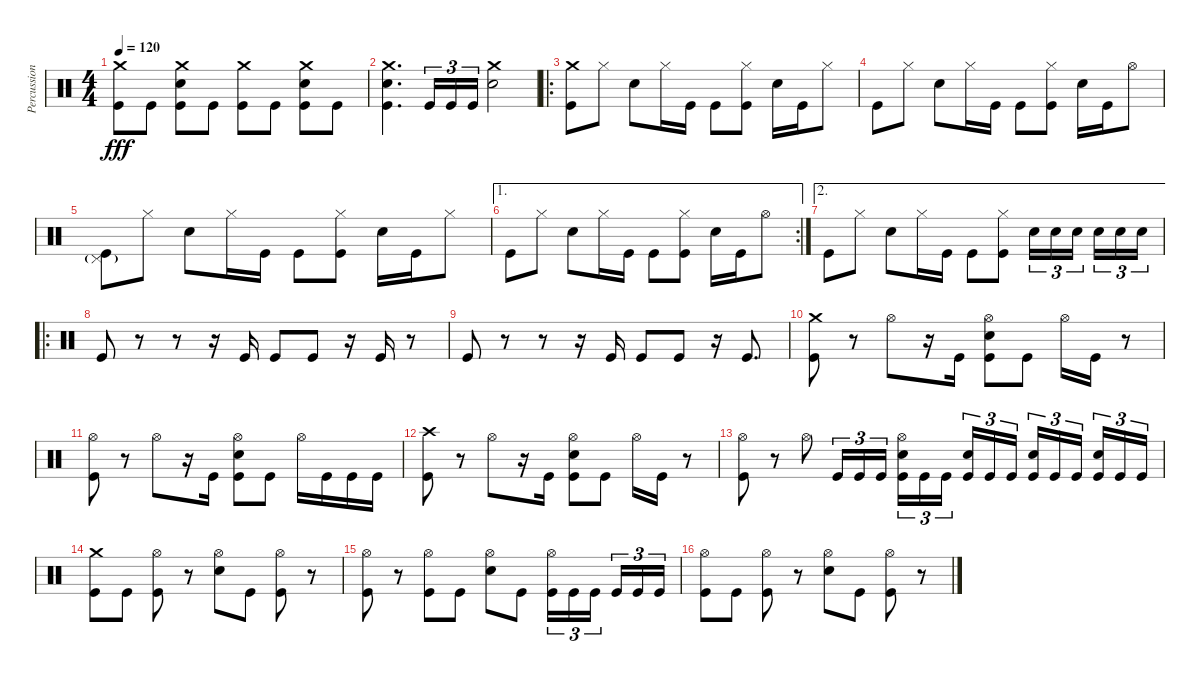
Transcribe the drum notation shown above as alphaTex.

\track ("Percussion" "Percussion") {instrument percussion}
\staff {score}
\articulation defaults
\ts (4 4)
\tempo 120
\clef neutral
\ks c
("Crash medium (hit)" "Kick (hit)").8{dy fff} "Kick (hit)".8 ("Crash medium (hit)" "Electric Snare (hit)" "Kick (hit)").8 "Kick (hit)".8 ("Crash medium (hit)" "Kick (hit)").8 "Kick (hit)".8 ("Crash medium (hit)" "Electric Snare (hit)" "Kick (hit)").8 "Kick (hit)".8 |
("Crash medium (hit)" "Electric Snare (hit)" "Kick (hit)").4{d} "Kick (hit)".16{tu (3 2)} "Kick (hit)".16{tu (3 2)} "Kick (hit)".16{tu (3 2)} ("Crash medium (hit)" "Electric Snare (hit)").2 |
\ro
("Crash medium (hit)" "Kick (hit)").8 "Hi-Hat (closed)".8 "Electric Snare (hit)".8 "Hi-Hat (closed)".16 "Kick (hit)".16 "Kick (hit)".8 ("Hi-Hat (closed)" "Kick (hit)").8 "Electric Snare (hit)".16 "Kick (hit)".16 "Hi-Hat (closed)".8 |
"Kick (hit)".8 "Hi-Hat (closed)".8 "Electric Snare (hit)".8 "Hi-Hat (closed)".16 "Kick (hit)".16 "Kick (hit)".8 ("Hi-Hat (closed)" "Kick (hit)").8 "Electric Snare (hit)".16 "Kick (hit)".16 "Hi-Hat (open)".8 |
("Pedal Hi-Hat (hit)"{g} "Kick (hit)").8 "Hi-Hat (closed)".8 "Electric Snare (hit)".8 "Hi-Hat (closed)".16 "Kick (hit)".16 "Kick (hit)".8 ("Hi-Hat (closed)" "Kick (hit)").8 "Electric Snare (hit)".16 "Kick (hit)".16 "Hi-Hat (closed)".8 |
\ae 1
\rc 2 "Kick (hit)".8 "Hi-Hat (closed)".8 "Electric Snare (hit)".8 "Hi-Hat (closed)".16 "Kick (hit)".16 "Kick (hit)".8
("Hi-Hat (closed)" "Kick (hit)").8 "Electric Snare (hit)".16 "Kick (hit)".16 "Hi-Hat (open)".8 |
\ae 2 "Kick (hit)".8 "Hi-Hat (closed)".8 "Electric Snare (hit)".8 "Hi-Hat (closed)".16 "Kick (hit)".16 "Kick (hit)".8
("Hi-Hat (closed)" "Kick (hit)").8 "Electric Snare (hit)".16{tu (3 2)} "Electric Snare (hit)".16{tu (3 2)} "Electric Snare (hit)".16{tu (3 2) beam splitsecondary} "Electric Snare (hit)".16{tu (3 2)} "Electric Snare (hit)".16{tu (3 2)} "Electric Snare (hit)".16{tu (3 2)} |
\ro "Kick (hit)".8
r.8 r.8 r.16 "Kick (hit)".16 "Kick (hit)".8 "Kick (hit)".8 r.16 "Kick (hit)".16 r.8 |
"Kick (hit)".8 r.8 r.8 r.16 "Kick (hit)".16 "Kick (hit)".8 "Kick (hit)".8 r.16 "Kick (hit)".8{d} |
("Crash medium (hit)" "Kick (hit)").8 r.8 "Hi-Hat (open)".8 r.16 "Kick (hit)".16 ("Hi-Hat (open)" "Electric Snare (hit)" "Kick (hit)").8 "Kick (hit)".8 "Hi-Hat (open)".16 "Kick (hit)".16 r.8 |
("Hi-Hat (open)" "Kick (hit)").8 r.8 "Hi-Hat (open)".8 r.16 "Kick (hit)".16 ("Hi-Hat (open)" "Electric Snare (hit)" "Kick (hit)").8 "Kick (hit)".8 "Hi-Hat (open)".16 "Kick (hit)".16 "Kick (hit)".16 "Kick (hit)".16 |
("Crash high (hit)" "Kick (hit)").8 r.8 "Hi-Hat (open)".8 r.16 "Kick (hit)".16 ("Hi-Hat (open)" "Electric Snare (hit)" "Kick (hit)").8 "Kick (hit)".8 "Hi-Hat (open)".16 "Kick (hit)".16 r.8 |
("Hi-Hat (open)" "Kick (hit)").8 r.8 "Hi-Hat (open)".8 "Kick (hit)".16{tu (3 2)} "Kick (hit)".16{tu (3 2)} "Kick (hit)".16{tu (3 2)} ("Hi-Hat (open)" "Electric Snare (hit)" "Kick (hit)").16{tu (3 2)} "Kick (hit)".16{tu (3 2)} "Kick (hit)".16{tu (3 2) beam splitsecondary} ("Electric Snare (hit)" "Kick (hit)").16{tu (3 2)} "Kick (hit)".16{tu (3 2)} "Kick (hit)".16{tu (3 2)} ("Electric Snare (hit)" "Kick (hit)").16{tu (3 2)} "Kick (hit)".16{tu (3 2)} "Kick (hit)".16{tu (3 2) beam splitsecondary} ("Electric Snare (hit)" "Kick (hit)").16{tu (3 2)} "Kick (hit)".16{tu (3 2)} "Kick (hit)".16{tu (3 2)} |
("Crash medium (hit)" "Kick (hit)").8 "Kick (hit)".8 ("Hi-Hat (open)" "Kick (hit)").8 r.8 ("Hi-Hat (open)" "Electric Snare (hit)").8 "Kick (hit)".8 ("Hi-Hat (open)" "Kick (hit)").8 r.8 |
("Hi-Hat (open)" "Kick (hit)").8 r.8 ("Hi-Hat (open)" "Kick (hit)").8 "Kick (hit)".8 ("Hi-Hat (open)" "Electric Snare (hit)").8 "Kick (hit)".8 ("Hi-Hat (open)" "Kick (hit)").16{tu (3 2)} "Kick (hit)".16{tu (3 2)} "Kick (hit)".16{tu (3 2) beam splitsecondary} "Kick (hit)".16{tu (3 2)} "Kick (hit)".16{tu (3 2)} "Kick (hit)".16{tu (3 2)} |
("Hi-Hat (open)" "Kick (hit)").8 "Kick (hit)".8 ("Hi-Hat (open)" "Kick (hit)").8 r.8 ("Hi-Hat (open)" "Electric Snare (hit)").8 "Kick (hit)".8 ("Hi-Hat (open)" "Kick (hit)").8 r.8
